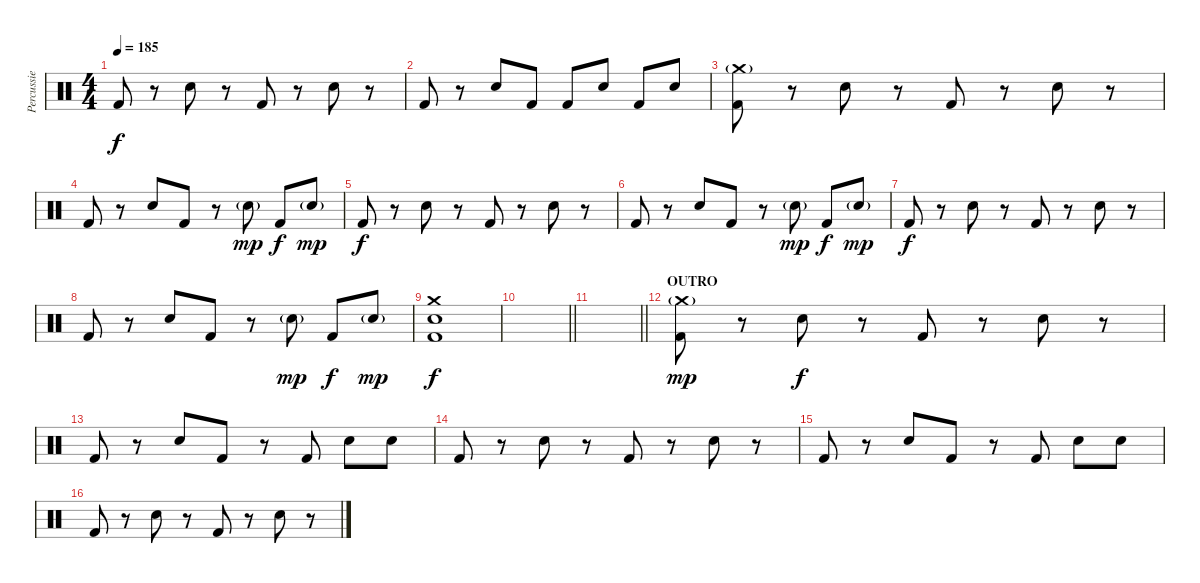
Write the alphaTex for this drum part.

\track ("Percussie" "Percussie") {instrument percussion}
\staff {score}
\articulation defaults
\ts (4 4)
\tempo 185
\clef neutral
\ks c "Kick (hit) 2".8{dy f}
r.8 "Snare (hit) 2".8 r.8 "Kick (hit) 2".8 r.8 "Snare (hit) 2".8 r.8 |
"Kick (hit) 2".8 r.8 "Snare (hit) 2".8 "Kick (hit) 2".8 "Kick (hit) 2".8 "Snare (hit) 2".8 "Kick (hit) 2".8 "Snare (hit) 2".8 |
("Crash medium (hit)"{g} "Kick (hit) 2").8 r.8 "Snare (hit) 2".8 r.8 "Kick (hit) 2".8 r.8 "Snare (hit) 2".8 r.8 |
"Kick (hit) 2".8 r.8 "Snare (hit) 2".8 "Kick (hit) 2".8 r.8 "Snare (hit) 2"{g}.8{dy mp} "Kick (hit) 2".8{dy f} "Snare (hit) 2"{g}.8{dy mp} |
"Kick (hit) 2".8{dy f} r.8 "Snare (hit) 2".8 r.8 "Kick (hit) 2".8 r.8 "Snare (hit) 2".8 r.8 |
"Kick (hit) 2".8 r.8 "Snare (hit) 2".8 "Kick (hit) 2".8 r.8 "Snare (hit) 2"{g}.8{dy mp} "Kick (hit) 2".8{dy f} "Snare (hit) 2"{g}.8{dy mp} |
"Kick (hit) 2".8{dy f} r.8 "Snare (hit) 2".8 r.8 "Kick (hit) 2".8 r.8 "Snare (hit) 2".8 r.8 |
"Kick (hit) 2".8 r.8 "Snare (hit) 2".8 "Kick (hit) 2".8 r.8 "Snare (hit) 2"{g}.8{dy mp} "Kick (hit) 2".8{dy f} "Snare (hit) 2"{g}.8{dy mp} |
("Crash medium (hit)" "Snare (hit) 2" "Kick (hit) 2").1{dy f} |
\barLineRight lightlight
|
\barLineRight lightlight
|
\section ("" "OUTRO")
("Crash medium (hit)"{g} "Kick (hit) 2").8{dy mp} r.8 "Snare (hit) 2".8{dy f} r.8 "Kick (hit) 2".8 r.8 "Snare (hit) 2".8 r.8 |
"Kick (hit) 2".8 r.8 "Snare (hit) 2".8 "Kick (hit) 2".8 r.8 "Kick (hit) 2".8 "Snare (hit) 2".8 "Snare (hit) 2".8 |
"Kick (hit) 2".8 r.8 "Snare (hit) 2".8 r.8 "Kick (hit) 2".8 r.8 "Snare (hit) 2".8 r.8 |
"Kick (hit) 2".8 r.8 "Snare (hit) 2".8 "Kick (hit) 2".8 r.8 "Kick (hit) 2".8 "Snare (hit) 2".8 "Snare (hit) 2".8 |
"Kick (hit) 2".8 r.8 "Snare (hit) 2".8 r.8 "Kick (hit) 2".8 r.8 "Snare (hit) 2".8 r.8
